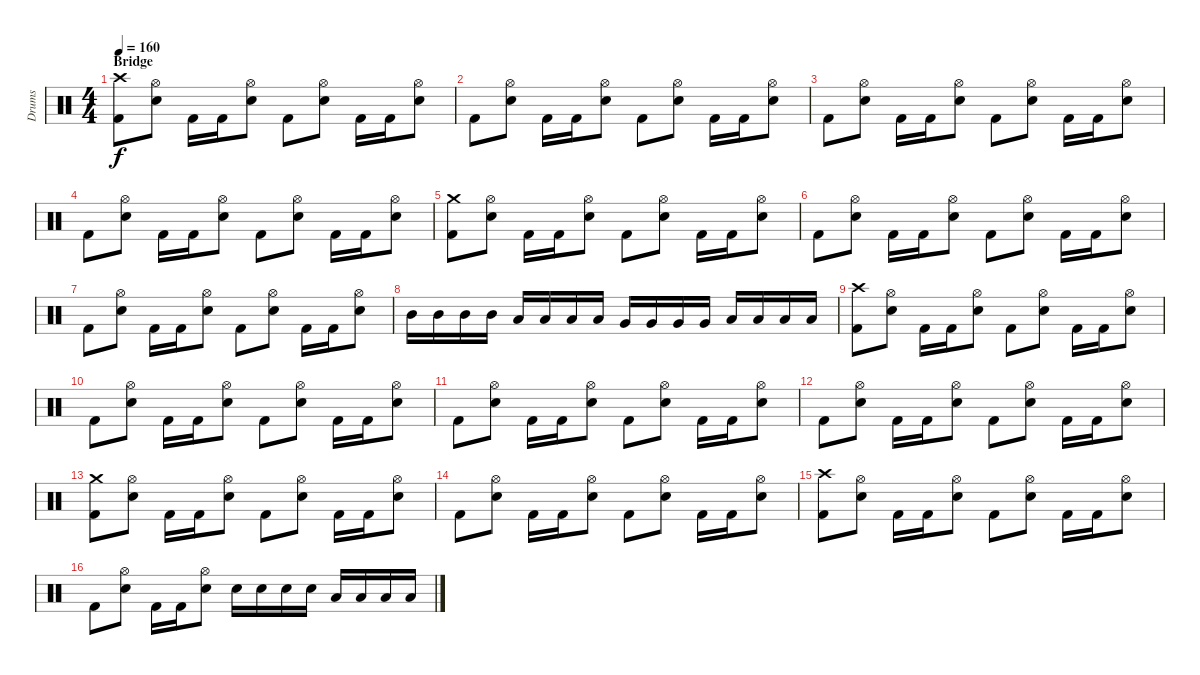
\track ("Drums" "Drums") {instrument percussion}
\staff {score}
\articulation defaults
\ts (4 4)
\section ("" "Bridge")
\tempo 160
\clef neutral
\ks c
("Crash high (hit)" "Kick (hit) 2").8{dy f} ("Hi-Hat (open)" "Snare (hit) 2").8 "Kick (hit) 2".16 "Kick (hit) 2".16 ("Hi-Hat (open)" "Snare (hit) 2").8 "Kick (hit) 2".8 ("Hi-Hat (open)" "Snare (hit) 2").8 "Kick (hit) 2".16 "Kick (hit) 2".16 ("Hi-Hat (open)" "Snare (hit) 2").8 |
"Kick (hit) 2".8 ("Hi-Hat (open)" "Snare (hit) 2").8 "Kick (hit) 2".16 "Kick (hit) 2".16 ("Hi-Hat (open)" "Snare (hit) 2").8 "Kick (hit) 2".8 ("Hi-Hat (open)" "Snare (hit) 2").8 "Kick (hit) 2".16 "Kick (hit) 2".16 ("Hi-Hat (open)" "Snare (hit) 2").8 |
"Kick (hit) 2".8 ("Hi-Hat (open)" "Snare (hit) 2").8 "Kick (hit) 2".16 "Kick (hit) 2".16 ("Hi-Hat (open)" "Snare (hit) 2").8 "Kick (hit) 2".8 ("Hi-Hat (open)" "Snare (hit) 2").8 "Kick (hit) 2".16 "Kick (hit) 2".16 ("Hi-Hat (open)" "Snare (hit) 2").8 |
"Kick (hit) 2".8 ("Hi-Hat (open)" "Snare (hit) 2").8 "Kick (hit) 2".16 "Kick (hit) 2".16 ("Hi-Hat (open)" "Snare (hit) 2").8 "Kick (hit) 2".8 ("Hi-Hat (open)" "Snare (hit) 2").8 "Kick (hit) 2".16 "Kick (hit) 2".16 ("Hi-Hat (open)" "Snare (hit) 2").8 |
("Crash medium (hit)" "Kick (hit) 2").8 ("Hi-Hat (open)" "Snare (hit) 2").8 "Kick (hit) 2".16 "Kick (hit) 2".16 ("Hi-Hat (open)" "Snare (hit) 2").8 "Kick (hit) 2".8 ("Hi-Hat (open)" "Snare (hit) 2").8 "Kick (hit) 2".16 "Kick (hit) 2".16 ("Hi-Hat (open)" "Snare (hit) 2").8 |
"Kick (hit) 2".8 ("Hi-Hat (open)" "Snare (hit) 2").8 "Kick (hit) 2".16 "Kick (hit) 2".16 ("Hi-Hat (open)" "Snare (hit) 2").8 "Kick (hit) 2".8 ("Hi-Hat (open)" "Snare (hit) 2").8 "Kick (hit) 2".16 "Kick (hit) 2".16 ("Hi-Hat (open)" "Snare (hit) 2").8 |
"Kick (hit) 2".8 ("Hi-Hat (open)" "Snare (hit) 2").8 "Kick (hit) 2".16 "Kick (hit) 2".16 ("Hi-Hat (open)" "Snare (hit) 2").8 "Kick (hit) 2".8 ("Hi-Hat (open)" "Snare (hit) 2").8 "Kick (hit) 2".16 "Kick (hit) 2".16 ("Hi-Hat (open)" "Snare (hit) 2").8 |
"Mid Tom (hit)".16 "Mid Tom (hit)".16 "Mid Tom (hit)".16 "Mid Tom (hit)".16 "Low Tom (hit)".16 "Low Tom (hit)".16 "Low Tom (hit)".16 "Low Tom (hit)".16 "Very Low Tom (hit)".16 "Very Low Tom (hit)".16 "Very Low Tom (hit)".16 "Very Low Tom (hit)".16 "Low Floor Tom (hit)".16 "Low Floor Tom (hit)".16 "Low Floor Tom (hit)".16 "Low Floor Tom (hit)".16 |
("Crash high (hit)" "Kick (hit) 2").8 ("Hi-Hat (open)" "Snare (hit) 2").8 "Kick (hit) 2".16 "Kick (hit) 2".16 ("Hi-Hat (open)" "Snare (hit) 2").8 "Kick (hit) 2".8 ("Hi-Hat (open)" "Snare (hit) 2").8 "Kick (hit) 2".16 "Kick (hit) 2".16 ("Hi-Hat (open)" "Snare (hit) 2").8 |
"Kick (hit) 2".8 ("Hi-Hat (open)" "Snare (hit) 2").8 "Kick (hit) 2".16 "Kick (hit) 2".16 ("Hi-Hat (open)" "Snare (hit) 2").8 "Kick (hit) 2".8 ("Hi-Hat (open)" "Snare (hit) 2").8 "Kick (hit) 2".16 "Kick (hit) 2".16 ("Hi-Hat (open)" "Snare (hit) 2").8 |
"Kick (hit) 2".8 ("Hi-Hat (open)" "Snare (hit) 2").8 "Kick (hit) 2".16 "Kick (hit) 2".16 ("Hi-Hat (open)" "Snare (hit) 2").8 "Kick (hit) 2".8 ("Hi-Hat (open)" "Snare (hit) 2").8 "Kick (hit) 2".16 "Kick (hit) 2".16 ("Hi-Hat (open)" "Snare (hit) 2").8 |
"Kick (hit) 2".8 ("Hi-Hat (open)" "Snare (hit) 2").8 "Kick (hit) 2".16 "Kick (hit) 2".16 ("Hi-Hat (open)" "Snare (hit) 2").8 "Kick (hit) 2".8 ("Hi-Hat (open)" "Snare (hit) 2").8 "Kick (hit) 2".16 "Kick (hit) 2".16 ("Hi-Hat (open)" "Snare (hit) 2").8 |
("Crash medium (hit)" "Kick (hit) 2").8 ("Hi-Hat (open)" "Snare (hit) 2").8 "Kick (hit) 2".16 "Kick (hit) 2".16 ("Hi-Hat (open)" "Snare (hit) 2").8 "Kick (hit) 2".8 ("Hi-Hat (open)" "Snare (hit) 2").8 "Kick (hit) 2".16 "Kick (hit) 2".16 ("Hi-Hat (open)" "Snare (hit) 2").8 |
"Kick (hit) 2".8 ("Hi-Hat (open)" "Snare (hit) 2").8 "Kick (hit) 2".16 "Kick (hit) 2".16 ("Hi-Hat (open)" "Snare (hit) 2").8 "Kick (hit) 2".8 ("Hi-Hat (open)" "Snare (hit) 2").8 "Kick (hit) 2".16 "Kick (hit) 2".16 ("Hi-Hat (open)" "Snare (hit) 2").8 |
("Crash high (hit)" "Kick (hit) 2").8 ("Hi-Hat (open)" "Snare (hit) 2").8 "Kick (hit) 2".16 "Kick (hit) 2".16 ("Hi-Hat (open)" "Snare (hit) 2").8 "Kick (hit) 2".8 ("Hi-Hat (open)" "Snare (hit) 2").8 "Kick (hit) 2".16 "Kick (hit) 2".16 ("Hi-Hat (open)" "Snare (hit) 2").8 |
"Kick (hit) 2".8 ("Hi-Hat (open)" "Snare (hit) 2").8 "Kick (hit) 2".16 "Kick (hit) 2".16 ("Hi-Hat (open)" "Snare (hit) 2").8 "Snare (hit) 2".16 "Snare (hit) 2".16 "Snare (hit) 2".16 "Snare (hit) 2".16 "Low Tom (hit)".16 "Low Tom (hit)".16 "Low Tom (hit)".16 "Low Tom (hit)".16
